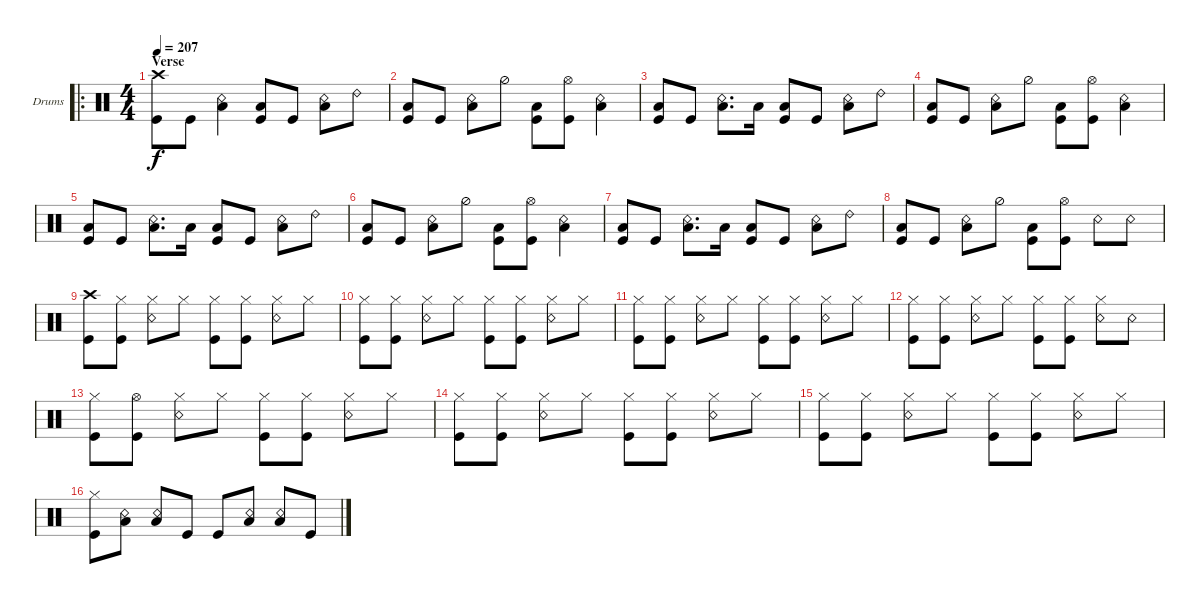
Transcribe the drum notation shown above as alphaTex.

\defaultSystemsLayout 4
\bracketExtendMode groupsimilarinstruments
\firstSystemTrackNameOrientation horizontal
\otherSystemsTrackNameOrientation horizontal
\track ("Drums" "Drums") {instrument percussion}
\staff {score}
\articulation defaults
\ro
\ts (4 4)
\section ("" "Verse")
\tempo 207
\clef neutral
\ks c
("Kick (hit)" "Crash high (hit)").8{dy f} "Kick (hit)".8 ("Snare (rim shot)" "Low Tom (hit)").4 ("Kick (hit)" "Low Tom (hit)").8 "Kick (hit)".8 ("Snare (rim shot)" "Low Tom (hit)").8 "Ride (bell) 2".8 |
("Kick (hit)" "Low Tom (hit)").8 "Kick (hit)".8 ("Snare (rim shot)" "Low Tom (hit)").8 "Hi-Hat (half)".8 ("Kick (hit)" "Low Tom (hit)").8 ("Kick (hit)" "Hi-Hat (open)").8 ("Snare (rim shot)" "Low Tom (hit)").4 |
("Kick (hit)" "Low Tom (hit)").8 "Kick (hit)".8 ("Snare (rim shot)" "Low Tom (hit)").8{d} "Low Tom (hit)".16 ("Kick (hit)" "Low Tom (hit)").8 "Kick (hit)".8 ("Snare (rim shot)" "Low Tom (hit)").8 "Ride (bell) 2".8 |
("Kick (hit)" "Low Tom (hit)").8 "Kick (hit)".8 ("Snare (rim shot)" "Low Tom (hit)").8 "Hi-Hat (half)".8 ("Kick (hit)" "Low Tom (hit)").8 ("Kick (hit)" "Hi-Hat (open)").8 ("Snare (rim shot)" "Low Tom (hit)").4 |
("Kick (hit)" "Low Tom (hit)").8 "Kick (hit)".8 ("Snare (rim shot)" "Low Tom (hit)").8{d} "Low Tom (hit)".16 ("Kick (hit)" "Low Tom (hit)").8 "Kick (hit)".8 ("Snare (rim shot)" "Low Tom (hit)").8 "Ride (bell) 2".8 |
("Kick (hit)" "Low Tom (hit)").8 "Kick (hit)".8 ("Snare (rim shot)" "Low Tom (hit)").8 "Hi-Hat (half)".8 ("Kick (hit)" "Low Tom (hit)").8 ("Kick (hit)" "Hi-Hat (open)").8 ("Snare (rim shot)" "Low Tom (hit)").4 |
("Kick (hit)" "Low Tom (hit)").8 "Kick (hit)".8 ("Snare (rim shot)" "Low Tom (hit)").8{d} "Low Tom (hit)".16 ("Kick (hit)" "Low Tom (hit)").8 "Kick (hit)".8 ("Snare (rim shot)" "Low Tom (hit)").8 "Ride (bell) 2".8 |
("Kick (hit)" "Low Tom (hit)").8 "Kick (hit)".8 ("Snare (rim shot)" "Low Tom (hit)").8 "Hi-Hat (half)".8 ("Kick (hit)" "Low Tom (hit)").8 ("Kick (hit)" "Hi-Hat (open)").8 "Snare (rim shot)".8 "Snare (rim shot)".8 |
("Kick (hit)" "Crash high (hit)").8 ("Kick (hit)" "Hi-Hat (closed)").8 ("Snare (rim shot)" "Hi-Hat (closed)").8 "Hi-Hat (closed)".8 ("Kick (hit)" "Hi-Hat (closed)").8 ("Kick (hit)" "Hi-Hat (closed)").8 ("Snare (rim shot)" "Hi-Hat (closed)").8 "Hi-Hat (closed)".8 |
("Kick (hit)" "Hi-Hat (closed)").8 ("Kick (hit)" "Hi-Hat (closed)").8 ("Snare (rim shot)" "Hi-Hat (closed)").8 "Hi-Hat (closed)".8 ("Kick (hit)" "Hi-Hat (closed)").8 ("Kick (hit)" "Hi-Hat (closed)").8 ("Snare (rim shot)" "Hi-Hat (closed)").8 "Hi-Hat (closed)".8 |
("Kick (hit)" "Hi-Hat (closed)").8 ("Kick (hit)" "Hi-Hat (closed)").8 ("Snare (rim shot)" "Hi-Hat (closed)").8 "Hi-Hat (closed)".8 ("Kick (hit)" "Hi-Hat (closed)").8 ("Kick (hit)" "Hi-Hat (closed)").8 ("Snare (rim shot)" "Hi-Hat (closed)").8 "Hi-Hat (closed)".8 |
("Kick (hit)" "Hi-Hat (closed)").8 ("Kick (hit)" "Hi-Hat (closed)").8 ("Snare (rim shot)" "Hi-Hat (closed)").8 "Hi-Hat (closed)".8 ("Kick (hit)" "Hi-Hat (closed)").8 ("Kick (hit)" "Hi-Hat (closed)").8 ("Snare (rim shot)" "Hi-Hat (closed)").8 "Snare (rim shot)".8 |
("Kick (hit)" "Hi-Hat (closed)").8 ("Kick (hit)" "Hi-Hat (open)").8 ("Snare (rim shot)" "Hi-Hat (closed)").8 "Hi-Hat (closed)".8 ("Kick (hit)" "Hi-Hat (closed)").8 ("Kick (hit)" "Hi-Hat (closed)").8 ("Snare (rim shot)" "Hi-Hat (closed)").8 "Hi-Hat (closed)".8 |
("Kick (hit)" "Hi-Hat (closed)").8 ("Kick (hit)" "Hi-Hat (closed)").8 ("Snare (rim shot)" "Hi-Hat (closed)").8 "Hi-Hat (closed)".8 ("Kick (hit)" "Hi-Hat (closed)").8 ("Kick (hit)" "Hi-Hat (closed)").8 ("Snare (rim shot)" "Hi-Hat (closed)").8 "Hi-Hat (closed)".8 |
("Kick (hit)" "Hi-Hat (closed)").8 ("Kick (hit)" "Hi-Hat (closed)").8 ("Snare (rim shot)" "Hi-Hat (closed)").8 "Hi-Hat (closed)".8 ("Kick (hit)" "Hi-Hat (closed)").8 ("Kick (hit)" "Hi-Hat (closed)").8 ("Snare (rim shot)" "Hi-Hat (closed)").8 "Hi-Hat (closed)".8 |
("Kick (hit)" "Hi-Hat (closed)").8 ("Snare (rim shot)" "Low Tom (hit)").8 ("Snare (rim shot)" "Low Tom (hit)").8 "Kick (hit)".8 "Kick (hit)".8 ("Snare (rim shot)" "Low Tom (hit)").8 ("Snare (rim shot)" "Low Tom (hit)").8 "Kick (hit)".8
